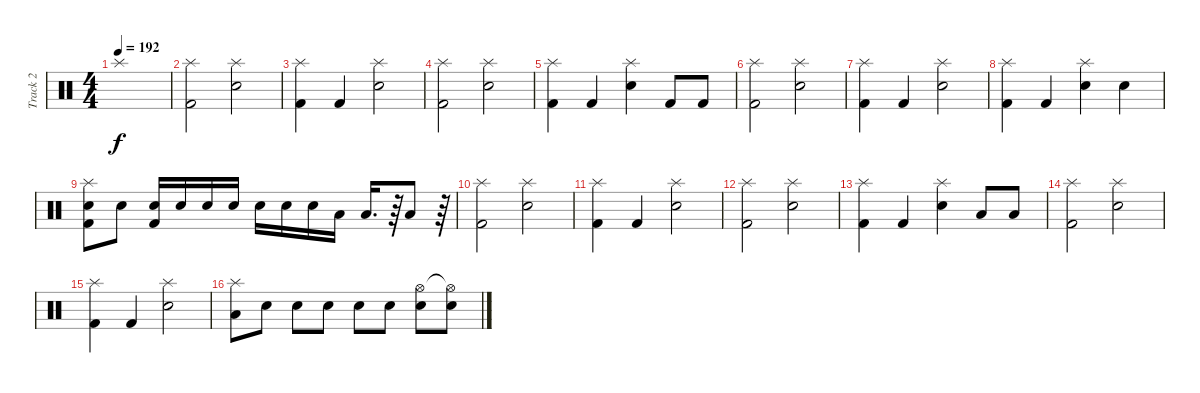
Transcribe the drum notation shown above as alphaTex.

\track ("Track 2" "Track 2") {instrument percussion}
\staff {score}
\articulation defaults
\ts (4 4)
\tempo 192
\clef neutral
\ks c "Splash (hit)"{t}.1{dy f}
|
("Splash (hit)" "Kick (hit) 2").2 ("Splash (hit)" "Electric Snare (hit)").2 |
("Splash (hit)" "Kick (hit) 2").4 "Kick (hit) 2".4 ("Splash (hit)" "Electric Snare (hit)").2 |
("Splash (hit)" "Kick (hit) 2").2 ("Splash (hit)" "Electric Snare (hit)").2 |
("Splash (hit)" "Kick (hit) 2").4 "Kick (hit) 2".4 ("Splash (hit)" "Electric Snare (hit)").4 "Kick (hit) 2".8 "Kick (hit) 2".8 |
("Splash (hit)" "Kick (hit) 2").2 ("Splash (hit)" "Electric Snare (hit)").2 |
("Splash (hit)" "Kick (hit) 2").4 "Kick (hit) 2".4 ("Splash (hit)" "Electric Snare (hit)").2 |
("Splash (hit)" "Kick (hit) 2").4 "Kick (hit) 2".4 ("Splash (hit)" "Electric Snare (hit)").4 "Electric Snare (hit)".4 |
("Splash (hit)" "Electric Snare (hit)" "Kick (hit) 2").8 "Electric Snare (hit)".8 ("Electric Snare (hit)" "Kick (hit) 2").16 "Electric Snare (hit)".16 "Electric Snare (hit)".16 "Electric Snare (hit)".16 "Electric Snare (hit)".16 "Electric Snare (hit)".16 "Electric Snare (hit)".16 "Low Tom (hit)".16 "Low Tom (hit)".16{d} r.64 "Low Tom (hit)".8 r.64 |
("Splash (hit)" "Kick (hit) 2").2 ("Splash (hit)" "Electric Snare (hit)").2 |
("Splash (hit)" "Kick (hit) 2").4 "Kick (hit) 2".4 ("Splash (hit)" "Electric Snare (hit)").2 |
("Splash (hit)" "Kick (hit) 2").2 ("Splash (hit)" "Electric Snare (hit)").2 |
("Splash (hit)" "Kick (hit) 2").4 "Kick (hit) 2".4 ("Splash (hit)" "Electric Snare (hit)").4 "Low Tom (hit)".8 "Low Tom (hit)".8 |
("Splash (hit)" "Kick (hit) 2").2 ("Splash (hit)" "Electric Snare (hit)").2 |
("Splash (hit)" "Kick (hit) 2").4 "Kick (hit) 2".4 ("Splash (hit)" "Electric Snare (hit)").2 |
("Splash (hit)" "Low Tom (hit)").8 "Electric Snare (hit)".8 "Electric Snare (hit)".8 "Electric Snare (hit)".8 "Electric Snare (hit)".8 "Electric Snare (hit)".8 ("Hi-Hat (open)" "Electric Snare (hit)").8 ("Hi-Hat (open)"{t} "Electric Snare (hit)").8
